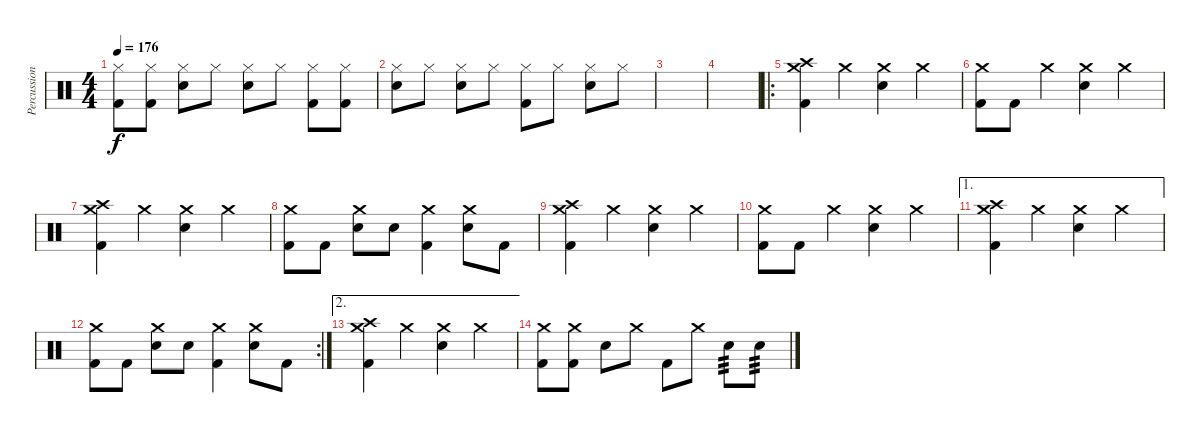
\track ("Percussion" "Percussion") {instrument percussion}
\staff {score}
\articulation defaults
\ts (4 4)
\tempo 176
\clef neutral
\ks c
("Hi-Hat (closed)" "Kick (hit) 2").8{dy f} ("Hi-Hat (closed)" "Kick (hit) 2").8 ("Hi-Hat (closed)" "Snare (hit) 2").8 "Hi-Hat (closed)".8 ("Hi-Hat (closed)" "Snare (hit) 2").8 "Hi-Hat (closed)".8 ("Hi-Hat (closed)" "Kick (hit) 2").8 ("Hi-Hat (closed)" "Kick (hit) 2").8 |
("Hi-Hat (closed)" "Snare (hit) 2").8 "Hi-Hat (closed)".8 ("Hi-Hat (closed)" "Snare (hit) 2").8 "Hi-Hat (closed)".8 ("Hi-Hat (closed)" "Kick (hit) 2").8 "Hi-Hat (closed)".8 ("Hi-Hat (closed)" "Snare (hit) 2").8 "Hi-Hat (closed)".8 |
|
|
\ro
("Crash medium (hit)" "Crash high (hit)" "Kick (hit) 2").4 "Crash medium (hit)".4 ("Crash medium (hit)" "Snare (hit) 2").4 "Crash medium (hit)".4 |
("Crash medium (hit)" "Kick (hit) 2").8 "Kick (hit) 2".8 "Crash medium (hit)".4 ("Crash medium (hit)" "Snare (hit) 2").4 "Crash medium (hit)".4 |
("Crash medium (hit)" "Crash high (hit)" "Kick (hit) 2").4 "Crash medium (hit)".4 ("Crash medium (hit)" "Snare (hit) 2").4 "Crash medium (hit)".4 |
("Crash medium (hit)" "Kick (hit) 2").8 "Kick (hit) 2".8 ("Crash medium (hit)" "Snare (hit) 2").8 "Snare (hit) 2".8 ("Crash medium (hit)" "Kick (hit) 2").4 ("Crash medium (hit)" "Snare (hit) 2").8 "Kick (hit) 2".8 |
("Crash medium (hit)" "Crash high (hit)" "Kick (hit) 2").4 "Crash medium (hit)".4 ("Crash medium (hit)" "Snare (hit) 2").4 "Crash medium (hit)".4 |
("Crash medium (hit)" "Kick (hit) 2").8 "Kick (hit) 2".8 "Crash medium (hit)".4 ("Crash medium (hit)" "Snare (hit) 2").4 "Crash medium (hit)".4 |
\ae 1
("Crash medium (hit)" "Crash high (hit)" "Kick (hit) 2").4 "Crash medium (hit)".4 ("Crash medium (hit)" "Snare (hit) 2").4 "Crash medium (hit)".4 |
\rc 2
("Crash medium (hit)" "Kick (hit) 2").8 "Kick (hit) 2".8 ("Crash medium (hit)" "Snare (hit) 2").8 "Snare (hit) 2".8 ("Crash medium (hit)" "Kick (hit) 2").4 ("Crash medium (hit)" "Snare (hit) 2").8 "Kick (hit) 2".8 |
\ae 2
("Crash medium (hit)" "Crash high (hit)" "Kick (hit) 2").4 "Crash medium (hit)".4 ("Crash medium (hit)" "Snare (hit) 2").4 "Crash medium (hit)".4 |
("Crash medium (hit)" "Kick (hit) 2").8 ("Crash medium (hit)" "Kick (hit) 2").8 "Snare (hit) 2".8 "Crash medium (hit)".8 "Kick (hit) 2".8 "Crash medium (hit)".8 "Snare (hit) 2".8{tp 3} "Snare (hit) 2".8{tp 3}
